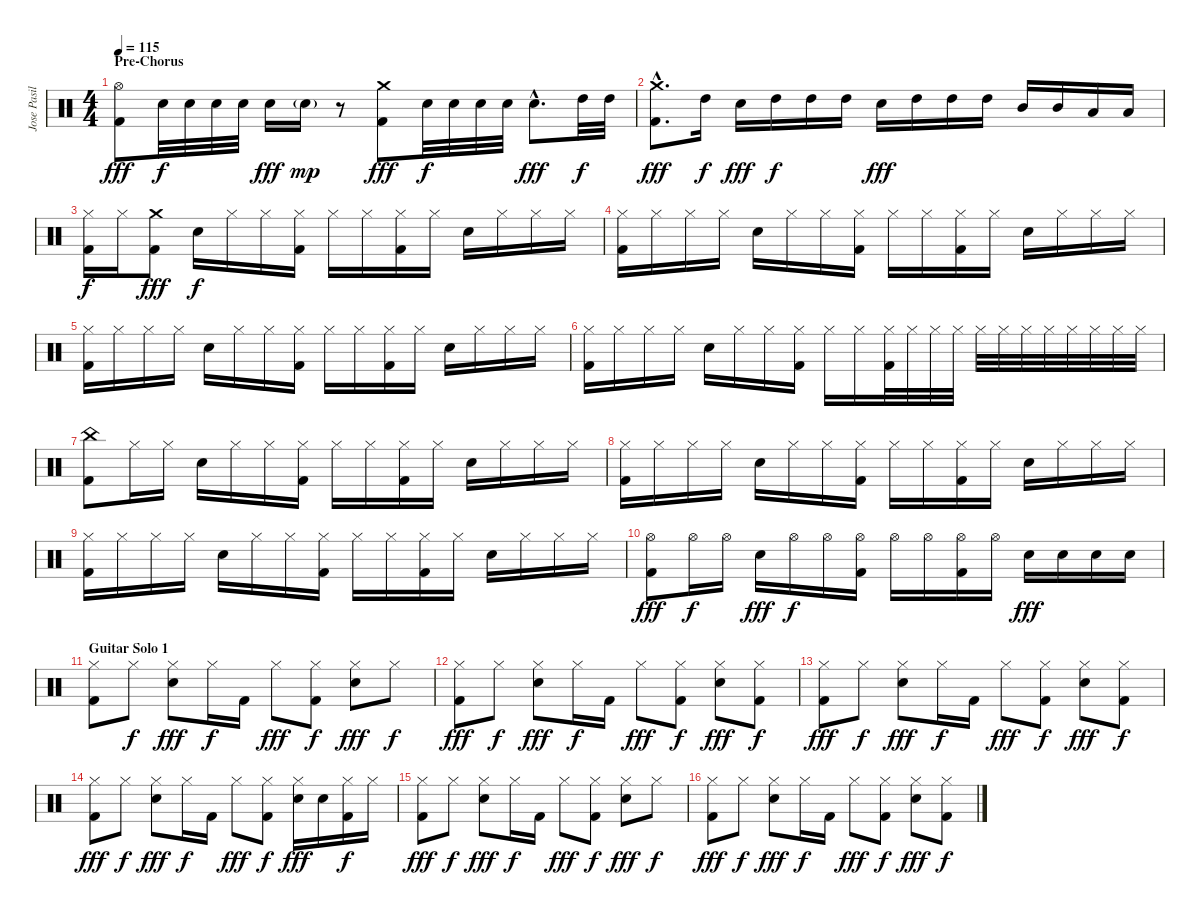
\track ("Jose Pasillas - Drums" "Jose Pasil") {instrument percussion}
\staff {score}
\articulation defaults
\ts (4 4)
\section ("" "Pre-Chorus")
\tempo 115
\clef neutral
\ks c
("Hi-Hat (open)" "Kick (hit) 2").8{dy fff} "Electric Snare (hit)".32{dy f} "Electric Snare (hit)".32 "Electric Snare (hit)".32 "Electric Snare (hit)".32 "Electric Snare (hit)".16{dy fff} "Electric Snare (hit)"{g}.16{dy mp} r.8 ("Crash medium (hit)" "Kick (hit) 2").8{dy fff} "Electric Snare (hit)".32{dy f} "Electric Snare (hit)".32 "Electric Snare (hit)".32 "Electric Snare (hit)".32 "Electric Snare (hit)"{hac}.8{d dy fff} "High Tom (hit)".32{dy f} "High Tom (hit)".32 |
("Crash medium (hit)"{hac} "Kick (hit) 2"{hac}).8{d dy fff} "High Tom (hit)".16{dy f} "Electric Snare (hit)".16{dy fff} "High Tom (hit)".16{dy f} "High Tom (hit)".16 "High Tom (hit)".16 "Electric Snare (hit)".16{dy fff} "High Tom (hit)".16 "High Tom (hit)".16 "High Tom (hit)".16 "Mid Tom (hit)".16 "Mid Tom (hit)".16 "Low Tom (hit)".16 "Low Tom (hit)".16 |
("Hi-Hat (closed)" "Kick (hit) 2").16{dy f} "Hi-Hat (closed)".16 ("Crash medium (hit)" "Kick (hit) 2").8{dy fff} "Electric Snare (hit)".16{dy f} "Hi-Hat (closed)".16 "Hi-Hat (closed)".16 ("Hi-Hat (closed)" "Kick (hit) 2").16 "Hi-Hat (closed)".16 "Hi-Hat (closed)".16 ("Hi-Hat (closed)" "Kick (hit) 2").16 "Hi-Hat (closed)".16 "Electric Snare (hit)".16 "Hi-Hat (closed)".16 "Hi-Hat (closed)".16 "Hi-Hat (closed)".16 |
("Hi-Hat (closed)" "Kick (hit) 2").16 "Hi-Hat (closed)".16 "Hi-Hat (closed)".16 "Hi-Hat (closed)".16 "Electric Snare (hit)".16 "Hi-Hat (closed)".16 "Hi-Hat (closed)".16 ("Hi-Hat (closed)" "Kick (hit) 2").16 "Hi-Hat (closed)".16 "Hi-Hat (closed)".16 ("Hi-Hat (closed)" "Kick (hit) 2").16 "Hi-Hat (closed)".16 "Electric Snare (hit)".16 "Hi-Hat (closed)".16 "Hi-Hat (closed)".16 "Hi-Hat (closed)".16 |
("Hi-Hat (closed)" "Kick (hit) 2").16 "Hi-Hat (closed)".16 "Hi-Hat (closed)".16 "Hi-Hat (closed)".16 "Electric Snare (hit)".16 "Hi-Hat (closed)".16 "Hi-Hat (closed)".16 ("Hi-Hat (closed)" "Kick (hit) 2").16 "Hi-Hat (closed)".16 "Hi-Hat (closed)".16 ("Hi-Hat (closed)" "Kick (hit) 2").16 "Hi-Hat (closed)".16 "Electric Snare (hit)".16 "Hi-Hat (closed)".16 "Hi-Hat (closed)".16 "Hi-Hat (closed)".16 |
("Hi-Hat (closed)" "Kick (hit) 2").16 "Hi-Hat (closed)".16 "Hi-Hat (closed)".16 "Hi-Hat (closed)".16 "Electric Snare (hit)".16 "Hi-Hat (closed)".16 "Hi-Hat (closed)".16 ("Hi-Hat (closed)" "Kick (hit) 2").16 "Hi-Hat (closed)".16 "Hi-Hat (closed)".16 ("Hi-Hat (closed)" "Kick (hit) 2").32 "Hi-Hat (closed)".32 "Hi-Hat (closed)".32 "Hi-Hat (closed)".32 "Hi-Hat (closed)".32 "Hi-Hat (closed)".32 "Hi-Hat (closed)".32 "Hi-Hat (closed)".32 "Hi-Hat (closed)".32 "Hi-Hat (closed)".32 "Hi-Hat (closed)".32 "Hi-Hat (closed)".32 |
("China (hit)" "Kick (hit) 2").8 "Hi-Hat (closed)".16 "Hi-Hat (closed)".16 "Electric Snare (hit)".16 "Hi-Hat (closed)".16 "Hi-Hat (closed)".16 ("Hi-Hat (closed)" "Kick (hit) 2").16 "Hi-Hat (closed)".16 "Hi-Hat (closed)".16 ("Hi-Hat (closed)" "Kick (hit) 2").16 "Hi-Hat (closed)".16 "Electric Snare (hit)".16 "Hi-Hat (closed)".16 "Hi-Hat (closed)".16 "Hi-Hat (closed)".16 |
("Hi-Hat (closed)" "Kick (hit) 2").16 "Hi-Hat (closed)".16 "Hi-Hat (closed)".16 "Hi-Hat (closed)".16 "Electric Snare (hit)".16 "Hi-Hat (closed)".16 "Hi-Hat (closed)".16 ("Hi-Hat (closed)" "Kick (hit) 2").16 "Hi-Hat (closed)".16 "Hi-Hat (closed)".16 ("Hi-Hat (closed)" "Kick (hit) 2").16 "Hi-Hat (closed)".16 "Electric Snare (hit)".16 "Hi-Hat (closed)".16 "Hi-Hat (closed)".16 "Hi-Hat (closed)".16 |
("Hi-Hat (closed)" "Kick (hit) 2").16 "Hi-Hat (closed)".16 "Hi-Hat (closed)".16 "Hi-Hat (closed)".16 "Electric Snare (hit)".16 "Hi-Hat (closed)".16 "Hi-Hat (closed)".16 ("Hi-Hat (closed)" "Kick (hit) 2").16 "Hi-Hat (closed)".16 "Hi-Hat (closed)".16 ("Hi-Hat (closed)" "Kick (hit) 2").16 "Hi-Hat (closed)".16 "Electric Snare (hit)".16 "Hi-Hat (closed)".16 "Hi-Hat (closed)".16 "Hi-Hat (closed)".16 |
("Hi-Hat (open)" "Kick (hit) 2").8{dy fff} "Hi-Hat (open)".16{dy f} "Hi-Hat (open)".16 "Electric Snare (hit)".16{dy fff} "Hi-Hat (open)".16{dy f} "Hi-Hat (open)".16 ("Hi-Hat (open)" "Kick (hit) 2").16 "Hi-Hat (open)".16 "Hi-Hat (open)".16 ("Hi-Hat (open)" "Kick (hit) 2").16 "Hi-Hat (open)".16 "Electric Snare (hit)".16{dy fff} "Electric Snare (hit)".16 "Electric Snare (hit)".16 "Electric Snare (hit)".16 |
\section ("" "Guitar Solo 1")
("Hi-Hat (closed)" "Kick (hit) 2").8 "Hi-Hat (closed)".8{dy f} ("Hi-Hat (closed)" "Electric Snare (hit)").8{dy fff} "Hi-Hat (closed)".16{dy f} "Kick (hit) 2".16 "Hi-Hat (closed)".8{dy fff} ("Hi-Hat (closed)" "Kick (hit) 2").8{dy f} ("Hi-Hat (closed)" "Electric Snare (hit)").8{dy fff} "Hi-Hat (closed)".8{dy f} |
("Hi-Hat (closed)" "Kick (hit) 2").8{dy fff} "Hi-Hat (closed)".8{dy f} ("Hi-Hat (closed)" "Electric Snare (hit)").8{dy fff} "Hi-Hat (closed)".16{dy f} "Kick (hit) 2".16 "Hi-Hat (closed)".8{dy fff} ("Hi-Hat (closed)" "Kick (hit) 2").8{dy f} ("Hi-Hat (closed)" "Electric Snare (hit)").8{dy fff} ("Hi-Hat (closed)" "Kick (hit) 2").8{dy f} |
("Hi-Hat (closed)" "Kick (hit) 2").8{dy fff} "Hi-Hat (closed)".8{dy f} ("Hi-Hat (closed)" "Electric Snare (hit)").8{dy fff} "Hi-Hat (closed)".16{dy f} "Kick (hit) 2".16 "Hi-Hat (closed)".8{dy fff} ("Hi-Hat (closed)" "Kick (hit) 2").8{dy f} ("Hi-Hat (closed)" "Electric Snare (hit)").8{dy fff} ("Hi-Hat (closed)" "Kick (hit) 2").8{dy f} |
("Hi-Hat (closed)" "Kick (hit) 2").8{dy fff} "Hi-Hat (closed)".8{dy f} ("Hi-Hat (closed)" "Electric Snare (hit)").8{dy fff} "Hi-Hat (closed)".16{dy f} "Kick (hit) 2".16 "Hi-Hat (closed)".8{dy fff} ("Hi-Hat (closed)" "Kick (hit) 2").8{dy f} ("Hi-Hat (closed)" "Electric Snare (hit)").16{dy fff} "Electric Snare (hit)".16 ("Hi-Hat (closed)" "Kick (hit) 2").16{dy f} "Hi-Hat (closed)".16 |
("Hi-Hat (closed)" "Kick (hit) 2").8{dy fff} "Hi-Hat (closed)".8{dy f} ("Hi-Hat (closed)" "Electric Snare (hit)").8{dy fff} "Hi-Hat (closed)".16{dy f} "Kick (hit) 2".16 "Hi-Hat (closed)".8{dy fff} ("Hi-Hat (closed)" "Kick (hit) 2").8{dy f} ("Hi-Hat (closed)" "Electric Snare (hit)").8{dy fff} "Hi-Hat (closed)".8{dy f} |
("Hi-Hat (closed)" "Kick (hit) 2").8{dy fff} "Hi-Hat (closed)".8{dy f} ("Hi-Hat (closed)" "Electric Snare (hit)").8{dy fff} "Hi-Hat (closed)".16{dy f} "Kick (hit) 2".16 "Hi-Hat (closed)".8{dy fff} ("Hi-Hat (closed)" "Kick (hit) 2").8{dy f} ("Hi-Hat (closed)" "Electric Snare (hit)").8{dy fff} ("Hi-Hat (closed)" "Kick (hit) 2").8{dy f}
